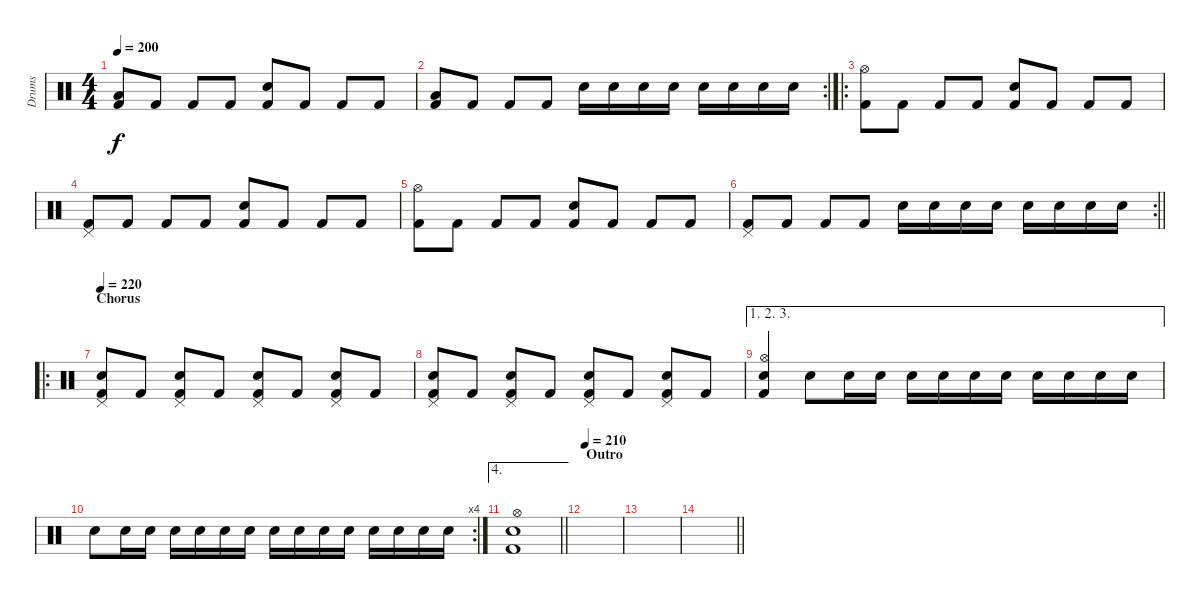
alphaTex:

\track ("Drums" "Drums") {instrument percussion}
\staff {score}
\articulation defaults
\ts (4 4)
\tempo 200
\clef neutral
\ks c
("Low Tom (hit)" "Kick (hit) 2").8{dy f} "Kick (hit) 2".8 "Kick (hit) 2".8 "Kick (hit) 2".8 ("Electric Snare (hit)" "Kick (hit) 2").8 "Kick (hit) 2".8 "Kick (hit) 2".8 "Kick (hit) 2".8 |
\rc 2
("Low Tom (hit)" "Kick (hit) 2").8 "Kick (hit) 2".8 "Kick (hit) 2".8 "Kick (hit) 2".8 "Electric Snare (hit)".16 "Electric Snare (hit)".16 "Electric Snare (hit)".16 "Electric Snare (hit)".16 "Electric Snare (hit)".16 "Electric Snare (hit)".16 "Electric Snare (hit)".16 "Electric Snare (hit)".16 |
\ro
("Hi-Hat (open)" "Kick (hit) 2").8 "Kick (hit) 2".8 "Kick (hit) 2".8 "Kick (hit) 2".8 ("Snare (hit) 2" "Kick (hit) 2").8 "Kick (hit) 2".8 "Kick (hit) 2".8 "Kick (hit) 2".8 |
("Pedal Hi-Hat (hit)" "Kick (hit) 2").8 "Kick (hit) 2".8 "Kick (hit) 2".8 "Kick (hit) 2".8 ("Snare (hit) 2" "Kick (hit) 2").8 "Kick (hit) 2".8 "Kick (hit) 2".8 "Kick (hit) 2".8 |
("Hi-Hat (open)" "Kick (hit) 2").8 "Kick (hit) 2".8 "Kick (hit) 2".8 "Kick (hit) 2".8 ("Snare (hit) 2" "Kick (hit) 2").8 "Kick (hit) 2".8 "Kick (hit) 2".8 "Kick (hit) 2".8 |
\rc 2
\barLineRight lightlight
("Pedal Hi-Hat (hit)" "Kick (hit) 2").8 "Kick (hit) 2".8 "Kick (hit) 2".8 "Kick (hit) 2".8 "Snare (hit) 2".16 "Snare (hit) 2".16 "Snare (hit) 2".16 "Snare (hit) 2".16 "Snare (hit) 2".16 "Snare (hit) 2".16 "Snare (hit) 2".16 "Snare (hit) 2".16 |
\ro
\section ("" "Chorus")
\tempo 220
("Pedal Hi-Hat (hit)" "Snare (hit) 2" "Kick (hit) 2").8 "Kick (hit) 2".8 ("Pedal Hi-Hat (hit)" "Snare (hit) 2" "Kick (hit) 2").8 "Kick (hit) 2".8 ("Pedal Hi-Hat (hit)" "Snare (hit) 2" "Kick (hit) 2").8 "Kick (hit) 2".8 ("Pedal Hi-Hat (hit)" "Snare (hit) 2" "Kick (hit) 2").8 "Kick (hit) 2".8 |
("Pedal Hi-Hat (hit)" "Snare (hit) 2" "Kick (hit) 2").8 "Kick (hit) 2".8 ("Pedal Hi-Hat (hit)" "Snare (hit) 2" "Kick (hit) 2").8 "Kick (hit) 2".8 ("Pedal Hi-Hat (hit)" "Snare (hit) 2" "Kick (hit) 2").8 "Kick (hit) 2".8 ("Pedal Hi-Hat (hit)" "Snare (hit) 2" "Kick (hit) 2").8 "Kick (hit) 2".8 |
\ae (1 2 3)
("Hi-Hat (open)" "Snare (hit) 2" "Kick (hit) 2").4 "Snare (hit) 2".8 "Snare (hit) 2".16 "Snare (hit) 2".16 "Snare (hit) 2".16 "Snare (hit) 2".16 "Snare (hit) 2".16 "Snare (hit) 2".16 "Snare (hit) 2".16 "Snare (hit) 2".16 "Snare (hit) 2".16 "Snare (hit) 2".16 |
\rc 4 "Snare (hit) 2".8 "Snare (hit) 2".16 "Snare (hit) 2".16 "Snare (hit) 2".16 "Snare (hit) 2".16 "Snare (hit) 2".16 "Snare (hit) 2".16 "Snare (hit) 2".16 "Snare (hit) 2".16 "Snare (hit) 2".16 "Snare (hit) 2".16 "Snare (hit) 2".16 "Snare (hit) 2".16 "Snare (hit) 2".16 "Snare (hit) 2".16
|
\ae 4
\barLineRight lightlight
("Hi-Hat (open)" "Snare (hit) 2" "Kick (hit) 2").1 |
\section ("" "Outro")
\tempo 210
|
|
\barLineRight lightlight
